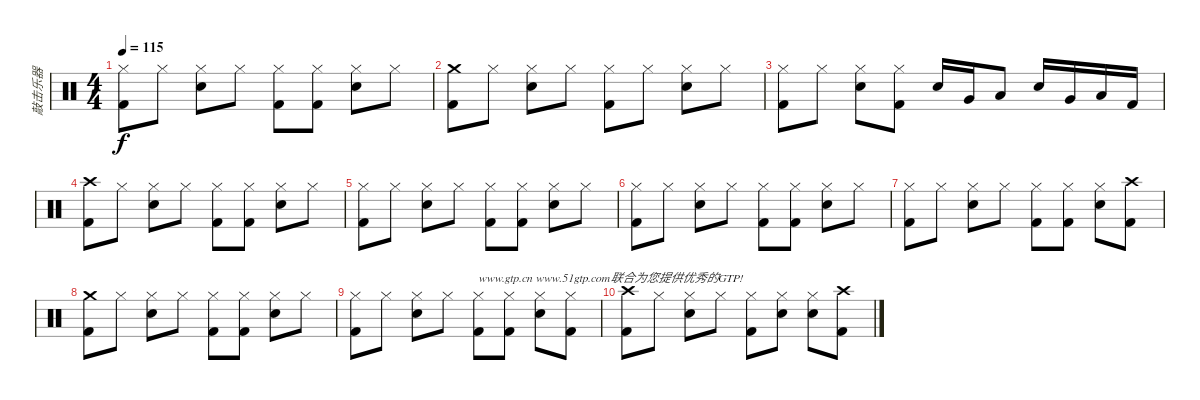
\track ("敲击乐器" "敲击乐器") {instrument percussion}
\staff {score}
\articulation defaults
\ts (4 4)
\tempo 115
\clef neutral
\ks c
("Hi-Hat (closed)" "Kick (hit) 2").8{dy f} "Hi-Hat (closed)".8 ("Hi-Hat (closed)" "Electric Snare (hit)").8 "Hi-Hat (closed)".8 ("Hi-Hat (closed)" "Kick (hit) 2").8 ("Hi-Hat (closed)" "Kick (hit) 2").8 ("Hi-Hat (closed)" "Electric Snare (hit)").8 "Hi-Hat (closed)".8 |
("Crash medium (hit)" "Kick (hit) 2").8 "Hi-Hat (closed)".8 ("Electric Snare (hit)" "Hi-Hat (closed)").8 "Hi-Hat (closed)".8 ("Kick (hit) 2" "Hi-Hat (closed)").8 "Hi-Hat (closed)".8 ("Electric Snare (hit)" "Hi-Hat (closed)").8 "Hi-Hat (closed)".8 |
("Hi-Hat (closed)" "Kick (hit) 2").8 "Hi-Hat (closed)".8 ("Hi-Hat (closed)" "Electric Snare (hit)").8 ("Hi-Hat (closed)" "Kick (hit) 2").8 "Electric Snare (hit)".16 "Very Low Tom (hit)".16 "Low Floor Tom (hit)".8 "Electric Snare (hit)".16 "Very Low Tom (hit)".16 "Low Floor Tom (hit)".16 "Kick (hit) 2".16 |
("Crash high (hit)" "Kick (hit) 2").8 "Hi-Hat (closed)".8 ("Hi-Hat (closed)" "Electric Snare (hit)").8 "Hi-Hat (closed)".8 ("Hi-Hat (closed)" "Kick (hit) 2").8 ("Hi-Hat (closed)" "Kick (hit) 2").8 ("Hi-Hat (closed)" "Electric Snare (hit)").8 "Hi-Hat (closed)".8 |
("Hi-Hat (closed)" "Kick (hit) 2").8 "Hi-Hat (closed)".8 ("Hi-Hat (closed)" "Electric Snare (hit)").8 "Hi-Hat (closed)".8 ("Hi-Hat (closed)" "Kick (hit) 2").8 ("Hi-Hat (closed)" "Kick (hit) 2").8 ("Hi-Hat (closed)" "Electric Snare (hit)").8 "Hi-Hat (closed)".8 |
("Hi-Hat (closed)" "Kick (hit) 2").8 "Hi-Hat (closed)".8 ("Hi-Hat (closed)" "Electric Snare (hit)").8 "Hi-Hat (closed)".8 ("Hi-Hat (closed)" "Kick (hit) 2").8 ("Hi-Hat (closed)" "Kick (hit) 2").8 ("Hi-Hat (closed)" "Electric Snare (hit)").8 "Hi-Hat (closed)".8 |
("Hi-Hat (closed)" "Kick (hit) 2").8 "Hi-Hat (closed)".8 ("Hi-Hat (closed)" "Electric Snare (hit)").8 "Hi-Hat (closed)".8 ("Hi-Hat (closed)" "Kick (hit) 2").8 ("Hi-Hat (closed)" "Kick (hit) 2").8 ("Hi-Hat (closed)" "Electric Snare (hit)").8 ("Crash high (hit)" "Kick (hit) 2").8 |
("Crash medium (hit)" "Kick (hit) 2").8 "Hi-Hat (closed)".8 ("Hi-Hat (closed)" "Electric Snare (hit)").8 "Hi-Hat (closed)".8 ("Hi-Hat (closed)" "Kick (hit) 2").8 ("Hi-Hat (closed)" "Kick (hit) 2").8 ("Hi-Hat (closed)" "Electric Snare (hit)").8 "Hi-Hat (closed)".8 |
("Hi-Hat (closed)" "Kick (hit) 2").8 "Hi-Hat (closed)".8 ("Hi-Hat (closed)" "Electric Snare (hit)").8 "Hi-Hat (closed)".8 ("Hi-Hat (closed)" "Kick (hit) 2").8{txt "www.gtp.cn www.51gtp.com联合为您提供优秀的GTP!"} ("Hi-Hat (closed)" "Kick (hit) 2").8 ("Hi-Hat (closed)" "Electric Snare (hit)").8 ("Hi-Hat (closed)" "Kick (hit) 2").8 |
("Crash high (hit)" "Kick (hit) 2").8 "Hi-Hat (closed)".8 ("Hi-Hat (closed)" "Electric Snare (hit)").8 "Hi-Hat (closed)".8 ("Hi-Hat (closed)" "Kick (hit) 2").8 ("Hi-Hat (closed)" "Electric Snare (hit)").8 ("Hi-Hat (closed)" "Electric Snare (hit)").8 ("Crash high (hit)" "Kick (hit) 2").8
